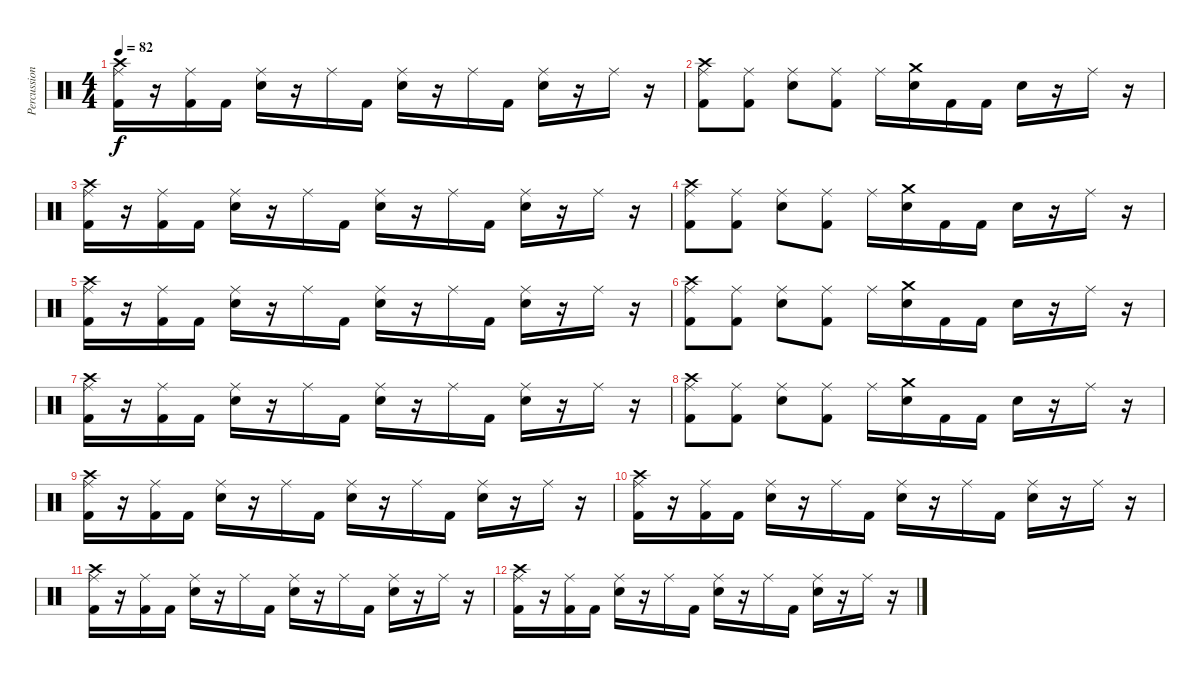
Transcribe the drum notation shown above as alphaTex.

\track ("Percussions" "Percussion") {instrument percussion}
\staff {score}
\articulation defaults
\ts (4 4)
\tempo 82
\clef neutral
\ks c
("Crash high (hit)" "Ride (middle)" "Kick (hit) 2").16{dy f} r.16 ("Ride (middle)" "Kick (hit) 2").16 "Kick (hit) 2".16 ("Ride (middle)" "Electric Snare (hit)").16 r.16 "Ride (middle)".16 "Kick (hit) 2".16 ("Ride (middle)" "Electric Snare (hit)").16 r.16 "Ride (middle)".16 "Kick (hit) 2".16 ("Ride (middle)" "Electric Snare (hit)").16 r.16 "Ride (middle)".16 r.16 |
("Crash high (hit)" "Ride (middle)" "Kick (hit) 2").8 ("Ride (middle)" "Kick (hit) 2").8 ("Ride (middle)" "Electric Snare (hit)").8 ("Ride (middle)" "Kick (hit) 2").8 "Ride (middle)".16 ("Crash medium (hit)" "Electric Snare (hit)").16 "Kick (hit) 2".16 "Kick (hit) 2".16 "Electric Snare (hit)".16 r.16 "Ride (middle)".16 r.16 |
("Crash high (hit)" "Ride (middle)" "Kick (hit) 2").16 r.16 ("Ride (middle)" "Kick (hit) 2").16 "Kick (hit) 2".16 ("Ride (middle)" "Electric Snare (hit)").16 r.16 "Ride (middle)".16 "Kick (hit) 2".16 ("Ride (middle)" "Electric Snare (hit)").16 r.16 "Ride (middle)".16 "Kick (hit) 2".16 ("Ride (middle)" "Electric Snare (hit)").16 r.16 "Ride (middle)".16 r.16 |
("Crash high (hit)" "Ride (middle)" "Kick (hit) 2").8 ("Ride (middle)" "Kick (hit) 2").8 ("Ride (middle)" "Electric Snare (hit)").8 ("Ride (middle)" "Kick (hit) 2").8 "Ride (middle)".16 ("Crash medium (hit)" "Electric Snare (hit)").16 "Kick (hit) 2".16 "Kick (hit) 2".16 "Electric Snare (hit)".16 r.16 "Ride (middle)".16 r.16 |
("Crash high (hit)" "Ride (middle)" "Kick (hit) 2").16 r.16 ("Ride (middle)" "Kick (hit) 2").16 "Kick (hit) 2".16 ("Ride (middle)" "Electric Snare (hit)").16 r.16 "Ride (middle)".16 "Kick (hit) 2".16 ("Ride (middle)" "Electric Snare (hit)").16 r.16 "Ride (middle)".16 "Kick (hit) 2".16 ("Ride (middle)" "Electric Snare (hit)").16 r.16 "Ride (middle)".16 r.16 |
("Crash high (hit)" "Ride (middle)" "Kick (hit) 2").8 ("Ride (middle)" "Kick (hit) 2").8 ("Ride (middle)" "Electric Snare (hit)").8 ("Ride (middle)" "Kick (hit) 2").8 "Ride (middle)".16 ("Crash medium (hit)" "Electric Snare (hit)").16 "Kick (hit) 2".16 "Kick (hit) 2".16 "Electric Snare (hit)".16 r.16 "Ride (middle)".16 r.16 |
("Crash high (hit)" "Ride (middle)" "Kick (hit) 2").16 r.16 ("Ride (middle)" "Kick (hit) 2").16 "Kick (hit) 2".16 ("Ride (middle)" "Electric Snare (hit)").16 r.16 "Ride (middle)".16 "Kick (hit) 2".16 ("Ride (middle)" "Electric Snare (hit)").16 r.16 "Ride (middle)".16 "Kick (hit) 2".16 ("Ride (middle)" "Electric Snare (hit)").16 r.16 "Ride (middle)".16 r.16 |
("Crash high (hit)" "Ride (middle)" "Kick (hit) 2").8 ("Ride (middle)" "Kick (hit) 2").8 ("Ride (middle)" "Electric Snare (hit)").8 ("Ride (middle)" "Kick (hit) 2").8 "Ride (middle)".16 ("Crash medium (hit)" "Electric Snare (hit)").16 "Kick (hit) 2".16 "Kick (hit) 2".16 "Electric Snare (hit)".16 r.16 "Ride (middle)".16 r.16 |
("Crash high (hit)" "Ride (middle)" "Kick (hit) 2").16 r.16 ("Ride (middle)" "Kick (hit) 2").16 "Kick (hit) 2".16 ("Ride (middle)" "Electric Snare (hit)").16 r.16 "Ride (middle)".16 "Kick (hit) 2".16 ("Ride (middle)" "Electric Snare (hit)").16 r.16 "Ride (middle)".16 "Kick (hit) 2".16 ("Ride (middle)" "Electric Snare (hit)").16 r.16 "Ride (middle)".16 r.16 |
("Crash high (hit)" "Ride (middle)" "Kick (hit) 2").16 r.16 ("Ride (middle)" "Kick (hit) 2").16 "Kick (hit) 2".16 ("Ride (middle)" "Electric Snare (hit)").16 r.16 "Ride (middle)".16 "Kick (hit) 2".16 ("Ride (middle)" "Electric Snare (hit)").16 r.16 "Ride (middle)".16 "Kick (hit) 2".16 ("Ride (middle)" "Electric Snare (hit)").16 r.16 "Ride (middle)".16 r.16 |
("Crash high (hit)" "Ride (middle)" "Kick (hit) 2").16 r.16 ("Ride (middle)" "Kick (hit) 2").16 "Kick (hit) 2".16 ("Ride (middle)" "Electric Snare (hit)").16 r.16 "Ride (middle)".16 "Kick (hit) 2".16 ("Ride (middle)" "Electric Snare (hit)").16 r.16 "Ride (middle)".16 "Kick (hit) 2".16 ("Ride (middle)" "Electric Snare (hit)").16 r.16 "Ride (middle)".16 r.16 |
("Crash high (hit)" "Ride (middle)" "Kick (hit) 2").16 r.16 ("Ride (middle)" "Kick (hit) 2").16 "Kick (hit) 2".16 ("Ride (middle)" "Electric Snare (hit)").16 r.16 "Ride (middle)".16 "Kick (hit) 2".16 ("Ride (middle)" "Electric Snare (hit)").16 r.16 "Ride (middle)".16 "Kick (hit) 2".16 ("Ride (middle)" "Electric Snare (hit)").16 r.16 "Ride (middle)".16 r.16
